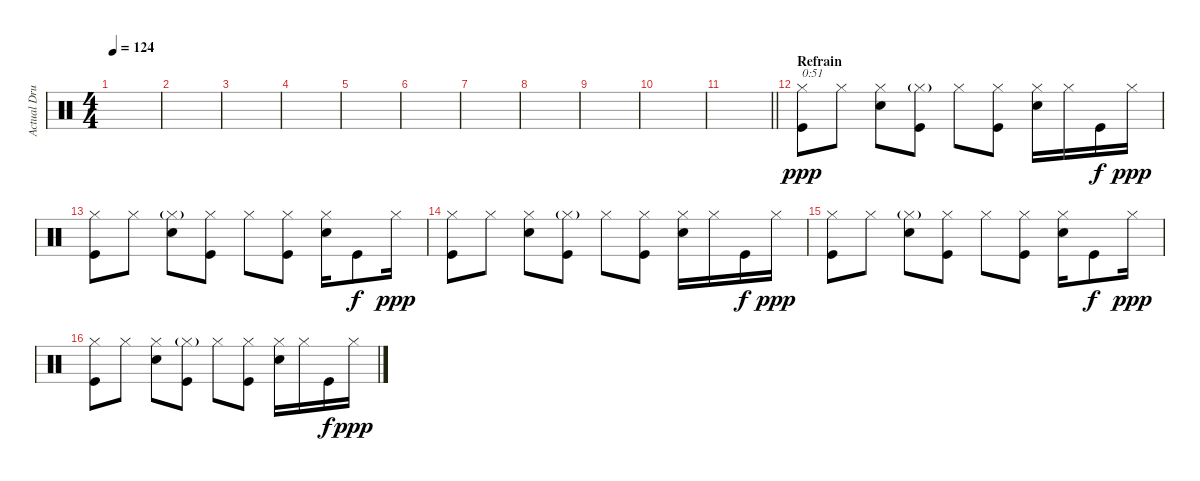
\track ("Actual Drums" "Actual Dru") {instrument percussion}
\staff {score}
\articulation defaults
\ts (4 4)
\tempo 124
\clef neutral
\ks c
|
|
|
|
|
|
|
|
|
|
\barLineRight lightlight
|
\section ("" "Refrain")
("Hi-Hat (closed)" "Kick (hit)").8{txt "0:51" dy ppp} "Hi-Hat (closed)".8 ("Hi-Hat (closed)" "Snare (hit) 2").8 ("Hi-Hat (closed)"{g} "Kick (hit)").8 "Hi-Hat (closed)".8 ("Hi-Hat (closed)" "Kick (hit)").8 ("Hi-Hat (closed)" "Snare (hit) 2").16 "Hi-Hat (closed)".16 "Kick (hit)".16{dy f} "Hi-Hat (closed)".16{dy ppp} |
("Hi-Hat (closed)" "Kick (hit)").8 "Hi-Hat (closed)".8 ("Hi-Hat (closed)"{g} "Snare (hit) 2").8 ("Hi-Hat (closed)" "Kick (hit)").8 "Hi-Hat (closed)".8 ("Hi-Hat (closed)" "Kick (hit)").8 ("Hi-Hat (closed)" "Snare (hit) 2").16 "Kick (hit)".8{dy f} "Hi-Hat (closed)".16{dy ppp} |
("Hi-Hat (closed)" "Kick (hit)").8 "Hi-Hat (closed)".8 ("Hi-Hat (closed)" "Snare (hit) 2").8 ("Hi-Hat (closed)"{g} "Kick (hit)").8 "Hi-Hat (closed)".8 ("Hi-Hat (closed)" "Kick (hit)").8 ("Hi-Hat (closed)" "Snare (hit) 2").16 "Hi-Hat (closed)".16 "Kick (hit)".16{dy f} "Hi-Hat (closed)".16{dy ppp} |
("Hi-Hat (closed)" "Kick (hit)").8 "Hi-Hat (closed)".8 ("Hi-Hat (closed)"{g} "Snare (hit) 2").8 ("Hi-Hat (closed)" "Kick (hit)").8 "Hi-Hat (closed)".8 ("Hi-Hat (closed)" "Kick (hit)").8 ("Hi-Hat (closed)" "Snare (hit) 2").16 "Kick (hit)".8{dy f} "Hi-Hat (closed)".16{dy ppp} |
("Hi-Hat (closed)" "Kick (hit)").8 "Hi-Hat (closed)".8 ("Hi-Hat (closed)" "Snare (hit) 2").8 ("Hi-Hat (closed)"{g} "Kick (hit)").8 "Hi-Hat (closed)".8 ("Hi-Hat (closed)" "Kick (hit)").8 ("Hi-Hat (closed)" "Snare (hit) 2").16 "Hi-Hat (closed)".16 "Kick (hit)".16{dy f} "Hi-Hat (closed)".16{dy ppp}
